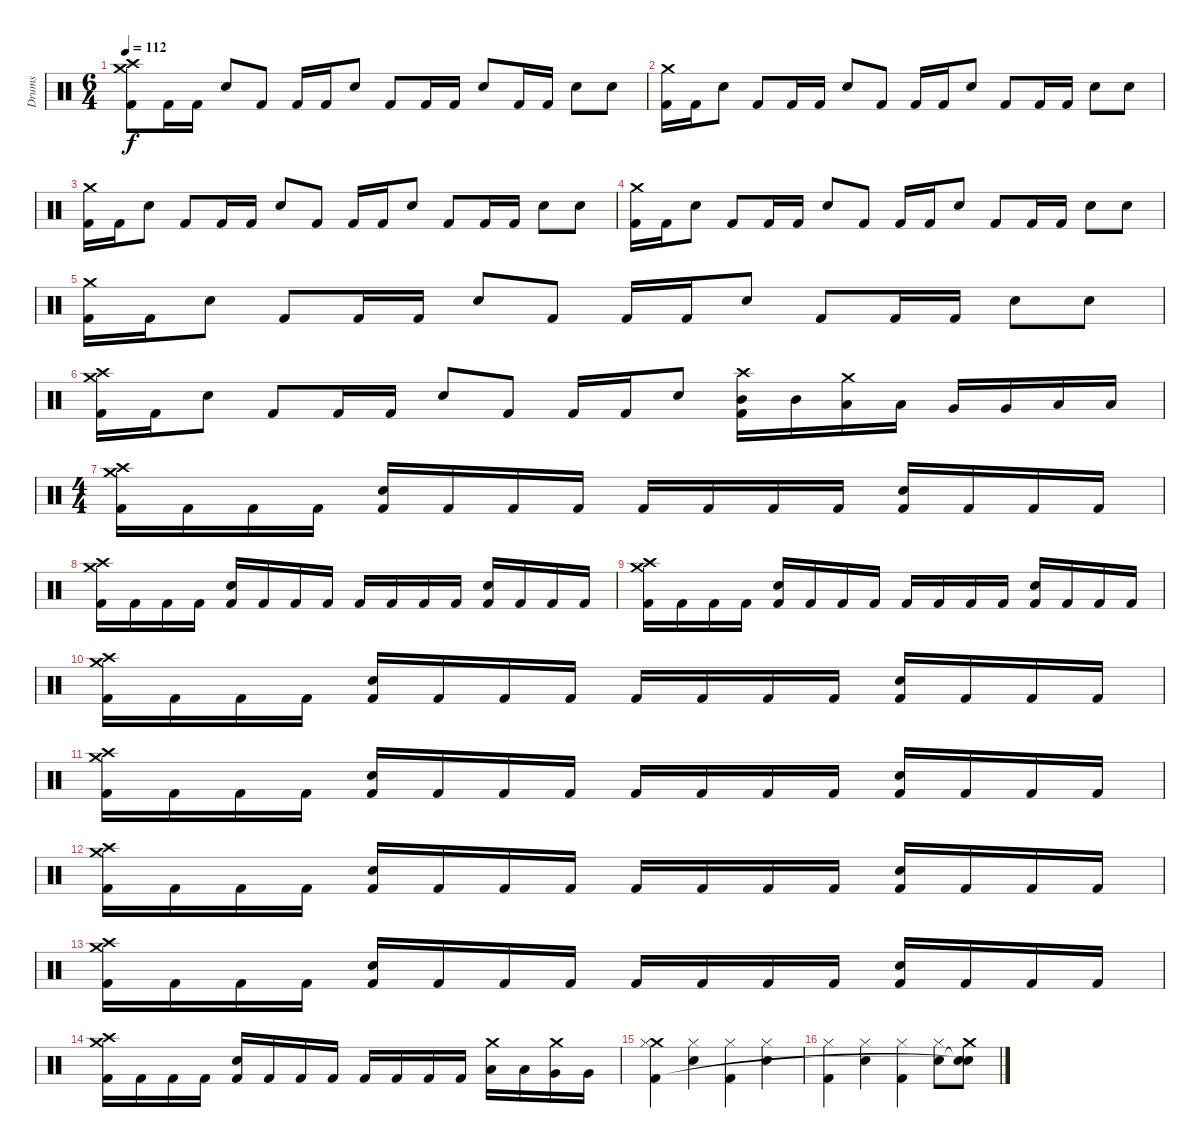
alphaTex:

\track ("Drums" "Drums") {instrument percussion}
\staff {score}
\articulation defaults
\ts (6 4)
\tempo 112
\clef neutral
\ks c
("Crash high (hit)" "Crash medium (hit)" "Kick (hit) 2").8{dy f} "Kick (hit) 2".16 "Kick (hit) 2".16 "Snare (hit) 2".8 "Kick (hit) 2".8 "Kick (hit) 2".16 "Kick (hit) 2".16 "Snare (hit) 2".8 "Kick (hit) 2".8 "Kick (hit) 2".16 "Kick (hit) 2".16 "Snare (hit) 2".8 "Kick (hit) 2".16 "Kick (hit) 2".16 "Snare (hit) 2".8 "Snare (hit) 2".8 |
("Crash medium (hit)" "Kick (hit) 2").16 "Kick (hit) 2".16 "Snare (hit) 2".8 "Kick (hit) 2".8 "Kick (hit) 2".16 "Kick (hit) 2".16 "Snare (hit) 2".8 "Kick (hit) 2".8 "Kick (hit) 2".16 "Kick (hit) 2".16 "Snare (hit) 2".8 "Kick (hit) 2".8 "Kick (hit) 2".16 "Kick (hit) 2".16 "Snare (hit) 2".8 "Snare (hit) 2".8 |
("Crash medium (hit)" "Kick (hit) 2").16 "Kick (hit) 2".16 "Snare (hit) 2".8 "Kick (hit) 2".8 "Kick (hit) 2".16 "Kick (hit) 2".16 "Snare (hit) 2".8 "Kick (hit) 2".8 "Kick (hit) 2".16 "Kick (hit) 2".16 "Snare (hit) 2".8 "Kick (hit) 2".8 "Kick (hit) 2".16 "Kick (hit) 2".16 "Snare (hit) 2".8 "Snare (hit) 2".8 |
("Crash medium (hit)" "Kick (hit) 2").16 "Kick (hit) 2".16 "Snare (hit) 2".8 "Kick (hit) 2".8 "Kick (hit) 2".16 "Kick (hit) 2".16 "Snare (hit) 2".8 "Kick (hit) 2".8 "Kick (hit) 2".16 "Kick (hit) 2".16 "Snare (hit) 2".8 "Kick (hit) 2".8 "Kick (hit) 2".16 "Kick (hit) 2".16 "Snare (hit) 2".8 "Snare (hit) 2".8 |
("Crash medium (hit)" "Kick (hit) 2").16 "Kick (hit) 2".16 "Snare (hit) 2".8 "Kick (hit) 2".8 "Kick (hit) 2".16 "Kick (hit) 2".16 "Snare (hit) 2".8 "Kick (hit) 2".8 "Kick (hit) 2".16 "Kick (hit) 2".16 "Snare (hit) 2".8 "Kick (hit) 2".8 "Kick (hit) 2".16 "Kick (hit) 2".16 "Snare (hit) 2".8 "Snare (hit) 2".8 |
("Crash high (hit)" "Crash medium (hit)" "Kick (hit) 2").16 "Kick (hit) 2".16 "Snare (hit) 2".8 "Kick (hit) 2".8 "Kick (hit) 2".16 "Kick (hit) 2".16 "Snare (hit) 2".8 "Kick (hit) 2".8 "Kick (hit) 2".16 "Kick (hit) 2".16 "Snare (hit) 2".8 ("Crash high (hit)" "Mid Tom (hit)" "Kick (hit) 2").16 "Mid Tom (hit)".16 ("Crash medium (hit)" "Low Tom (hit)").16 "Low Tom (hit)".16 "Very Low Tom (hit)".16 "Very Low Tom (hit)".16 "Low Floor Tom (hit)".16 "Low Floor Tom (hit)".16 |
\ts (4 4)
("Crash high (hit)" "Crash medium (hit)" "Kick (hit) 2").16 "Kick (hit) 2".16 "Kick (hit) 2".16 "Kick (hit) 2".16 ("Snare (hit) 2" "Kick (hit) 2").16 "Kick (hit) 2".16 "Kick (hit) 2".16 "Kick (hit) 2".16 "Kick (hit) 2".16 "Kick (hit) 2".16 "Kick (hit) 2".16 "Kick (hit) 2".16 ("Snare (hit) 2" "Kick (hit) 2").16 "Kick (hit) 2".16 "Kick (hit) 2".16 "Kick (hit) 2".16 |
("Crash high (hit)" "Crash medium (hit)" "Kick (hit) 2").16 "Kick (hit) 2".16 "Kick (hit) 2".16 "Kick (hit) 2".16 ("Snare (hit) 2" "Kick (hit) 2").16 "Kick (hit) 2".16 "Kick (hit) 2".16 "Kick (hit) 2".16 "Kick (hit) 2".16 "Kick (hit) 2".16 "Kick (hit) 2".16 "Kick (hit) 2".16 ("Snare (hit) 2" "Kick (hit) 2").16 "Kick (hit) 2".16 "Kick (hit) 2".16 "Kick (hit) 2".16 |
("Crash high (hit)" "Crash medium (hit)" "Kick (hit) 2").16 "Kick (hit) 2".16 "Kick (hit) 2".16 "Kick (hit) 2".16 ("Snare (hit) 2" "Kick (hit) 2").16 "Kick (hit) 2".16 "Kick (hit) 2".16 "Kick (hit) 2".16 "Kick (hit) 2".16 "Kick (hit) 2".16 "Kick (hit) 2".16 "Kick (hit) 2".16 ("Snare (hit) 2" "Kick (hit) 2").16 "Kick (hit) 2".16 "Kick (hit) 2".16 "Kick (hit) 2".16 |
("Crash high (hit)" "Crash medium (hit)" "Kick (hit) 2").16 "Kick (hit) 2".16 "Kick (hit) 2".16 "Kick (hit) 2".16 ("Snare (hit) 2" "Kick (hit) 2").16 "Kick (hit) 2".16 "Kick (hit) 2".16 "Kick (hit) 2".16 "Kick (hit) 2".16 "Kick (hit) 2".16 "Kick (hit) 2".16 "Kick (hit) 2".16 ("Snare (hit) 2" "Kick (hit) 2").16 "Kick (hit) 2".16 "Kick (hit) 2".16 "Kick (hit) 2".16 |
("Crash high (hit)" "Crash medium (hit)" "Kick (hit) 2").16 "Kick (hit) 2".16 "Kick (hit) 2".16 "Kick (hit) 2".16 ("Snare (hit) 2" "Kick (hit) 2").16 "Kick (hit) 2".16 "Kick (hit) 2".16 "Kick (hit) 2".16 "Kick (hit) 2".16 "Kick (hit) 2".16 "Kick (hit) 2".16 "Kick (hit) 2".16 ("Snare (hit) 2" "Kick (hit) 2").16 "Kick (hit) 2".16 "Kick (hit) 2".16 "Kick (hit) 2".16 |
("Crash high (hit)" "Crash medium (hit)" "Kick (hit) 2").16 "Kick (hit) 2".16 "Kick (hit) 2".16 "Kick (hit) 2".16 ("Snare (hit) 2" "Kick (hit) 2").16 "Kick (hit) 2".16 "Kick (hit) 2".16 "Kick (hit) 2".16 "Kick (hit) 2".16 "Kick (hit) 2".16 "Kick (hit) 2".16 "Kick (hit) 2".16 ("Snare (hit) 2" "Kick (hit) 2").16 "Kick (hit) 2".16 "Kick (hit) 2".16 "Kick (hit) 2".16 |
("Crash high (hit)" "Crash medium (hit)" "Kick (hit) 2").16 "Kick (hit) 2".16 "Kick (hit) 2".16 "Kick (hit) 2".16 ("Snare (hit) 2" "Kick (hit) 2").16 "Kick (hit) 2".16 "Kick (hit) 2".16 "Kick (hit) 2".16 "Kick (hit) 2".16 "Kick (hit) 2".16 "Kick (hit) 2".16 "Kick (hit) 2".16 ("Snare (hit) 2" "Kick (hit) 2").16 "Kick (hit) 2".16 "Kick (hit) 2".16 "Kick (hit) 2".16 |
("Crash high (hit)" "Crash medium (hit)" "Kick (hit) 2").16 "Kick (hit) 2".16 "Kick (hit) 2".16 "Kick (hit) 2".16 ("Snare (hit) 2" "Kick (hit) 2").16 "Kick (hit) 2".16 "Kick (hit) 2".16 "Kick (hit) 2".16 "Kick (hit) 2".16 "Kick (hit) 2".16 "Kick (hit) 2".16 "Kick (hit) 2".16 ("Crash medium (hit)" "Low Tom (hit)").16 "Low Tom (hit)".16 ("Crash medium (hit)" "Very Low Tom (hit)").16 "Very Low Tom (hit)".16 |
("Crash medium (hit)" "Hi-Hat (closed)" "Kick (hit) 2").4 ("Hi-Hat (closed)" "Snare (hit) 2").4 ("Hi-Hat (closed)" "Kick (hit) 2").4 ("Hi-Hat (closed)" "Snare (hit) 2").4 |
("Hi-Hat (closed)" "Kick (hit) 2").4 ("Hi-Hat (closed)" "Snare (hit) 2").4 ("Hi-Hat (closed)" "Kick (hit) 2").4 ("Hi-Hat (closed)" "Snare (hit) 2").8 ("Crash medium (hit)" "Snare (hit)"{t} "Snare (hit)"{t}).8
